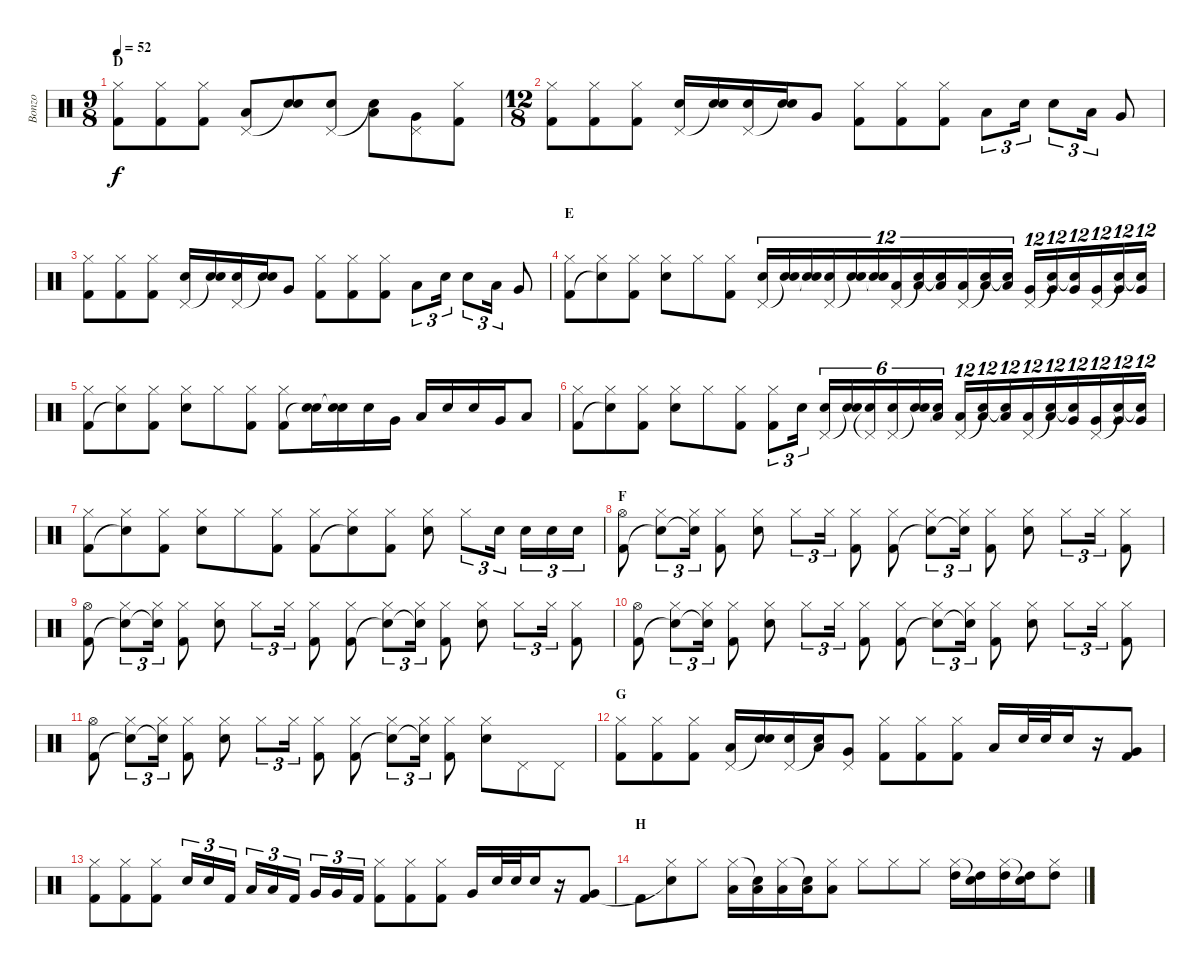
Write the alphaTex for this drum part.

\track ("Bonzo" "Bonzo") {instrument percussion}
\staff {score}
\articulation defaults
\ts (9 8)
\section ("" "D")
\tempo 52
\clef neutral
\ks c
("Hi-Hat (closed)" "Kick (hit) 2").8{dy f} ("Hi-Hat (closed)" "Kick (hit) 2").8 ("Hi-Hat (closed)" "Kick (hit) 2").8 ("Pedal Hi-Hat (hit)" "Low Tom (hit)").8 ("Snare (hit)"{t} "Snare (hit) 2").8 ("Pedal Hi-Hat (hit)" "Snare (hit) 2").8 ("Snare (hit)"{t} "Low Tom (hit)").8 ("Pedal Hi-Hat (hit)" "Very Low Tom (hit)").8 ("Hi-Hat (closed)" "Kick (hit) 2").8 |
\ts (12 8)
("Hi-Hat (closed)" "Kick (hit) 2").8 ("Hi-Hat (closed)" "Kick (hit) 2").8 ("Hi-Hat (closed)" "Kick (hit) 2").8 ("Pedal Hi-Hat (hit)" "Snare (hit) 2").16 ("Snare (hit)"{t} "Snare (hit) 2").16 ("Pedal Hi-Hat (hit)" "Snare (hit) 2").16 ("Snare (hit)"{t} "Snare (hit) 2").16 "Very Low Tom (hit)".8 ("Hi-Hat (closed)" "Kick (hit) 2").8 ("Hi-Hat (closed)" "Kick (hit) 2").8 ("Hi-Hat (closed)" "Kick (hit) 2").8 "Low Tom (hit)".8{tu (3 2)} "Snare (hit) 2".16{tu (3 2)} "Snare (hit) 2".8{tu (3 2)} "Low Tom (hit)".16{tu (3 2)} "Very Low Tom (hit)".8 |
("Hi-Hat (closed)" "Kick (hit) 2").8 ("Hi-Hat (closed)" "Kick (hit) 2").8 ("Hi-Hat (closed)" "Kick (hit) 2").8 ("Pedal Hi-Hat (hit)" "Snare (hit) 2").16 ("Snare (hit)"{t} "Snare (hit) 2").16 ("Pedal Hi-Hat (hit)" "Snare (hit) 2").16 ("Snare (hit)"{t} "Snare (hit) 2").16 "Very Low Tom (hit)".8 ("Hi-Hat (closed)" "Kick (hit) 2").8 ("Hi-Hat (closed)" "Kick (hit) 2").8 ("Hi-Hat (closed)" "Kick (hit) 2").8 "Low Tom (hit)".8{tu (3 2)} "Snare (hit) 2".16{tu (3 2)} "Snare (hit) 2".8{tu (3 2)} "Low Tom (hit)".16{tu (3 2)} "Very Low Tom (hit)".8 |
\section ("" "E")
("Hi-Hat (closed)" "Kick (hit) 2").8 ("Hi-Hat (closed)" "Snare (hit)"{t}).8 ("Hi-Hat (closed)" "Kick (hit) 2").8 ("Hi-Hat (closed)" "Snare (hit) 2").8 "Hi-Hat (closed)".8 ("Hi-Hat (closed)" "Kick (hit) 2").8 ("Pedal Hi-Hat (hit)" "Snare (hit) 2").16{tu (12 8)} ("Snare (hit)"{t} "Snare (hit) 2").16{tu (12 8)} ("Snare (hit)"{t} "Snare (hit) 2").16{tu (12 8)} ("Pedal Hi-Hat (hit)" "Snare (hit) 2").16{tu (12 8)} ("Snare (hit)"{t} "Snare (hit) 2").16{tu (12 8)} ("Snare (hit)"{t} "Snare (hit) 2").16{tu (12 8)} ("Pedal Hi-Hat (hit)" "Low Tom (hit)").16{tu (12 8)} ("Snare (hit)"{t} "Low Tom (hit)").16{tu (12 8)} ("Snare (hit)"{t} "Low Tom (hit)").16{tu (12 8)} ("Pedal Hi-Hat (hit)" "Low Tom (hit)").16{tu (12 8)} ("Snare (hit)"{t} "Low Tom (hit)").16{tu (12 8)} ("Snare (hit)"{t} "Low Tom (hit)").16{tu (12 8)} ("Pedal Hi-Hat (hit)" "Very Low Tom (hit)").16{tu (12 8)} ("Snare (hit)"{t} "Very Low Tom (hit)").16{tu (12 8)} ("Snare (hit)"{t} "Very Low Tom (hit)").16{tu (12 8)} ("Pedal Hi-Hat (hit)" "Very Low Tom (hit)").16{tu (12 8)} ("Snare (hit)"{t} "Very Low Tom (hit)").16{tu (12 8)} ("Snare (hit)"{t} "Very Low Tom (hit)").16{tu (12 8)} |
("Hi-Hat (closed)" "Kick (hit) 2").8 ("Hi-Hat (closed)" "Snare (hit)"{t}).8 ("Hi-Hat (closed)" "Kick (hit) 2").8 ("Hi-Hat (closed)" "Snare (hit) 2").8 "Hi-Hat (closed)".8 ("Hi-Hat (closed)" "Kick (hit) 2").8 ("Hi-Hat (closed)" "Kick (hit) 2").8 ("Snare (hit) 2" "Snare (hit)"{t}).16 ("Snare (hit) 2" "Snare (hit)"{t}).16 "Snare (hit) 2".16 "Very Low Tom (hit)".16 "Low Floor Tom (hit)".16 "Snare (hit) 2".16 "Snare (hit) 2".16 "Very Low Tom (hit)".16 "Low Floor Tom (hit)".8 |
("Hi-Hat (closed)" "Kick (hit) 2").8 ("Hi-Hat (closed)" "Snare (hit)"{t}).8 ("Hi-Hat (closed)" "Kick (hit) 2").8 ("Hi-Hat (closed)" "Snare (hit) 2").8 "Hi-Hat (closed)".8 ("Hi-Hat (closed)" "Kick (hit) 2").8 ("Hi-Hat (closed)" "Kick (hit) 2").8{tu (3 2)} "Snare (hit) 2".16{tu (3 2)} ("Pedal Hi-Hat (hit)" "Snare (hit) 2").16{tu (6 4)} ("Snare (hit)"{t} "Snare (hit) 2").16{tu (6 4)} ("Pedal Hi-Hat (hit)"{t} "Snare (hit) 2").16{tu (6 4)} ("Pedal Hi-Hat (hit)" "Snare (hit) 2").16{tu (6 4)} ("Snare (hit)"{t} "Snare (hit) 2").16{tu (6 4)} ("Snare (hit)"{t} "Low Tom (hit)").16{tu (6 4)} ("Pedal Hi-Hat (hit)" "Low Tom (hit)").16{tu (12 8)} ("Snare (hit)"{t} "Low Tom (hit)").16{tu (12 8)} ("Snare (hit)"{t} "Low Tom (hit)").16{tu (12 8)} ("Pedal Hi-Hat (hit)" "Low Tom (hit)").16{tu (12 8)} ("Snare (hit)"{t} "Low Tom (hit)").16{tu (12 8)} ("Snare (hit)"{t} "Very Low Tom (hit)").16{tu (12 8)} ("Pedal Hi-Hat (hit)" "Very Low Tom (hit)").16{tu (12 8)} ("Snare (hit)"{t} "Very Low Tom (hit)").16{tu (12 8)} ("Snare (hit)"{t} "Very Low Tom (hit)").16{tu (12 8)} |
("Hi-Hat (closed)" "Kick (hit) 2").8 ("Hi-Hat (closed)" "Snare (hit)"{t}).8 ("Hi-Hat (closed)" "Kick (hit) 2").8 ("Hi-Hat (closed)" "Snare (hit) 2").8 "Hi-Hat (closed)".8 ("Hi-Hat (closed)" "Kick (hit) 2").8 ("Hi-Hat (closed)" "Kick (hit) 2").8 ("Hi-Hat (closed)" "Snare (hit)"{t}).8 ("Hi-Hat (closed)" "Kick (hit) 2").8 ("Hi-Hat (closed)" "Snare (hit) 2").8 "Hi-Hat (closed)".8{tu (3 2)} "Snare (hit) 2".16{tu (3 2)} "Snare (hit) 2".16{tu (3 2)} "Snare (hit) 2".16{tu (3 2)} "Snare (hit) 2".16{tu (3 2)} |
\section ("" "F")
("Hi-Hat (open)" "Kick (hit) 2").8 ("Hi-Hat (closed)" "Snare (hit)"{t}).8{tu (3 2)} ("Hi-Hat (closed)" "Snare (hit)"{t}).16{tu (3 2)} ("Hi-Hat (closed)" "Kick (hit) 2").8 ("Hi-Hat (closed)" "Snare (hit) 2").8 "Hi-Hat (closed)".8{tu (3 2)} "Hi-Hat (closed)".16{tu (3 2)} ("Hi-Hat (closed)" "Kick (hit) 2").8 ("Hi-Hat (closed)" "Kick (hit) 2").8 ("Hi-Hat (closed)" "Snare (hit)"{t}).8{tu (3 2)} ("Hi-Hat (closed)" "Snare (hit)"{t}).16{tu (3 2)} ("Hi-Hat (closed)" "Kick (hit) 2").8 ("Hi-Hat (closed)" "Snare (hit) 2").8 "Hi-Hat (closed)".8{tu (3 2)} "Hi-Hat (closed)".16{tu (3 2)} ("Hi-Hat (closed)" "Kick (hit) 2").8 |
("Hi-Hat (open)" "Kick (hit) 2").8 ("Hi-Hat (closed)" "Snare (hit)"{t}).8{tu (3 2)} ("Hi-Hat (closed)" "Snare (hit)"{t}).16{tu (3 2)} ("Hi-Hat (closed)" "Kick (hit) 2").8 ("Hi-Hat (closed)" "Snare (hit) 2").8 "Hi-Hat (closed)".8{tu (3 2)} "Hi-Hat (closed)".16{tu (3 2)} ("Hi-Hat (closed)" "Kick (hit) 2").8 ("Hi-Hat (closed)" "Kick (hit) 2").8 ("Hi-Hat (closed)" "Snare (hit)"{t}).8{tu (3 2)} ("Hi-Hat (closed)" "Snare (hit)"{t}).16{tu (3 2)} ("Hi-Hat (closed)" "Kick (hit) 2").8 ("Hi-Hat (closed)" "Snare (hit) 2").8 "Hi-Hat (closed)".8{tu (3 2)} "Hi-Hat (closed)".16{tu (3 2)} ("Hi-Hat (closed)" "Kick (hit) 2").8 |
("Hi-Hat (open)" "Kick (hit) 2").8 ("Hi-Hat (closed)" "Snare (hit)"{t}).8{tu (3 2)} ("Hi-Hat (closed)" "Snare (hit)"{t}).16{tu (3 2)} ("Hi-Hat (closed)" "Kick (hit) 2").8 ("Hi-Hat (closed)" "Snare (hit) 2").8 "Hi-Hat (closed)".8{tu (3 2)} "Hi-Hat (closed)".16{tu (3 2)} ("Hi-Hat (closed)" "Kick (hit) 2").8 ("Hi-Hat (closed)" "Kick (hit) 2").8 ("Hi-Hat (closed)" "Snare (hit)"{t}).8{tu (3 2)} ("Hi-Hat (closed)" "Snare (hit)"{t}).16{tu (3 2)} ("Hi-Hat (closed)" "Kick (hit) 2").8 ("Hi-Hat (closed)" "Snare (hit) 2").8 "Hi-Hat (closed)".8{tu (3 2)} "Hi-Hat (closed)".16{tu (3 2)} ("Hi-Hat (closed)" "Kick (hit) 2").8 |
("Hi-Hat (open)" "Kick (hit) 2").8 ("Hi-Hat (closed)" "Snare (hit)"{t}).8{tu (3 2)} ("Hi-Hat (closed)" "Snare (hit)"{t}).16{tu (3 2)} ("Hi-Hat (closed)" "Kick (hit) 2").8 ("Hi-Hat (closed)" "Snare (hit) 2").8 "Hi-Hat (closed)".8{tu (3 2)} "Hi-Hat (closed)".16{tu (3 2)} ("Hi-Hat (closed)" "Kick (hit) 2").8 ("Hi-Hat (closed)" "Kick (hit) 2").8 ("Hi-Hat (closed)" "Snare (hit)"{t}).8{tu (3 2)} ("Hi-Hat (closed)" "Snare (hit)"{t}).16{tu (3 2)} ("Hi-Hat (closed)" "Kick (hit) 2").8 ("Hi-Hat (closed)" "Snare (hit) 2").8 "Pedal Hi-Hat (hit)".8 "Pedal Hi-Hat (hit)".8 |
\section ("" "G")
("Hi-Hat (closed)" "Kick (hit) 2").8 ("Hi-Hat (closed)" "Kick (hit) 2").8 ("Hi-Hat (closed)" "Kick (hit) 2").8 ("Pedal Hi-Hat (hit)" "Low Tom (hit)").16 ("Snare (hit)"{t} "Snare (hit) 2").16 ("Pedal Hi-Hat (hit)" "Snare (hit) 2").16 ("Snare (hit)"{t} "Low Tom (hit)").16 ("Pedal Hi-Hat (hit)" "Very Low Tom (hit)").8 ("Hi-Hat (closed)" "Kick (hit) 2").8 ("Hi-Hat (closed)" "Kick (hit) 2").8 ("Hi-Hat (closed)" "Kick (hit) 2").8 "Low Tom (hit)".16 "Snare (hit) 2".32 "Snare (hit) 2".32 "Snare (hit) 2".16 r.16 ("Very Low Tom (hit)" "Kick (hit) 2").8 |
("Hi-Hat (closed)" "Kick (hit) 2").8 ("Hi-Hat (closed)" "Kick (hit) 2").8 ("Hi-Hat (closed)" "Kick (hit) 2").8 "Snare (hit) 2".16{tu (3 2)} "Snare (hit) 2".16{tu (3 2)} "Kick (hit) 2".16{tu (3 2)} "Low Tom (hit)".16{tu (3 2)} "Low Tom (hit)".16{tu (3 2)} "Kick (hit) 2".16{tu (3 2)} "Very Low Tom (hit)".16{tu (3 2)} "Very Low Tom (hit)".16{tu (3 2)} "Kick (hit) 2".16{tu (3 2)} ("Hi-Hat (closed)" "Kick (hit) 2").8 ("Hi-Hat (closed)" "Kick (hit) 2").8 ("Hi-Hat (closed)" "Kick (hit) 2").8 "Very Low Tom (hit)".16 "Snare (hit) 2".32 "Snare (hit) 2".32 "Snare (hit) 2".16 r.16 ("Very Low Tom (hit)" "Kick (hit) 2").8 |
\section ("" "H")
"Kick (hit) 2".8 ("Hi-Hat (closed)" "Snare (hit)"{t}).8 "Hi-Hat (closed)".8 ("Hi-Hat (closed)" "Low Tom (hit)").16 ("Snare (hit)"{t} "Low Tom (hit)").16 ("Hi-Hat (closed)" "Low Tom (hit)").16 ("Snare (hit)"{t} "Low Tom (hit)").16 ("Hi-Hat (closed)" "Low Tom (hit)").8 "Hi-Hat (closed)".8 "Hi-Hat (closed)".8 "Hi-Hat (closed)".8 ("Hi-Hat (closed)" "High Tom (hit)").16 ("Snare (hit)"{t} "High Tom (hit)").16 ("Hi-Hat (closed)" "High Tom (hit)").16 ("Snare (hit)"{t} "High Tom (hit)").16 ("Hi-Hat (closed)" "High Tom (hit)").8
